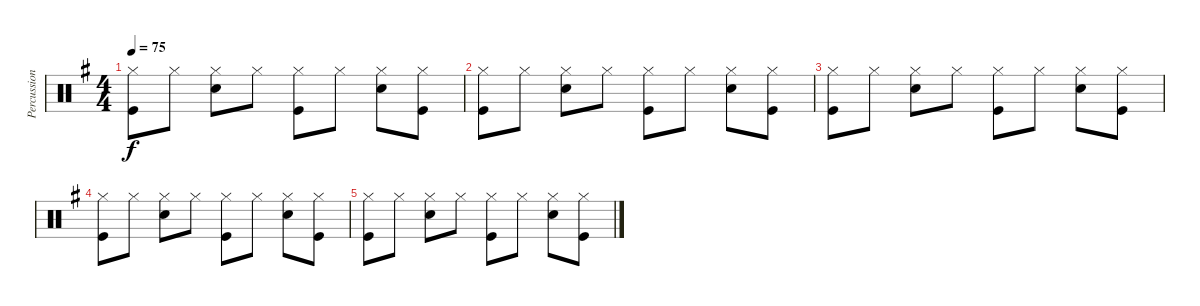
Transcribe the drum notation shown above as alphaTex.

\track ("Percussion" "Percussion") {instrument percussion}
\staff {score}
\articulation defaults
\ts (4 4)
\tempo 75
\clef neutral
\ks g
("Hi-Hat (closed)" "Kick (hit)").8{dy f} "Hi-Hat (closed)".8 ("Hi-Hat (closed)" "Snare (hit) 2").8 "Hi-Hat (closed)".8 ("Hi-Hat (closed)" "Kick (hit)").8 "Hi-Hat (closed)".8 ("Hi-Hat (closed)" "Snare (hit) 2").8 ("Hi-Hat (closed)" "Kick (hit)").8 |
("Hi-Hat (closed)" "Kick (hit)").8 "Hi-Hat (closed)".8 ("Hi-Hat (closed)" "Snare (hit) 2").8 "Hi-Hat (closed)".8 ("Hi-Hat (closed)" "Kick (hit)").8 "Hi-Hat (closed)".8 ("Hi-Hat (closed)" "Snare (hit) 2").8 ("Hi-Hat (closed)" "Kick (hit)").8 |
("Hi-Hat (closed)" "Kick (hit)").8 "Hi-Hat (closed)".8 ("Hi-Hat (closed)" "Snare (hit) 2").8 "Hi-Hat (closed)".8 ("Hi-Hat (closed)" "Kick (hit)").8 "Hi-Hat (closed)".8 ("Hi-Hat (closed)" "Snare (hit) 2").8 ("Hi-Hat (closed)" "Kick (hit)").8 |
("Hi-Hat (closed)" "Kick (hit)").8 "Hi-Hat (closed)".8 ("Hi-Hat (closed)" "Snare (hit) 2").8 "Hi-Hat (closed)".8 ("Hi-Hat (closed)" "Kick (hit)").8 "Hi-Hat (closed)".8 ("Hi-Hat (closed)" "Snare (hit) 2").8 ("Hi-Hat (closed)" "Kick (hit)").8 |
("Hi-Hat (closed)" "Kick (hit)").8 "Hi-Hat (closed)".8 ("Hi-Hat (closed)" "Snare (hit) 2").8 "Hi-Hat (closed)".8 ("Hi-Hat (closed)" "Kick (hit)").8 "Hi-Hat (closed)".8 ("Hi-Hat (closed)" "Snare (hit) 2").8 ("Hi-Hat (closed)" "Kick (hit)").8
